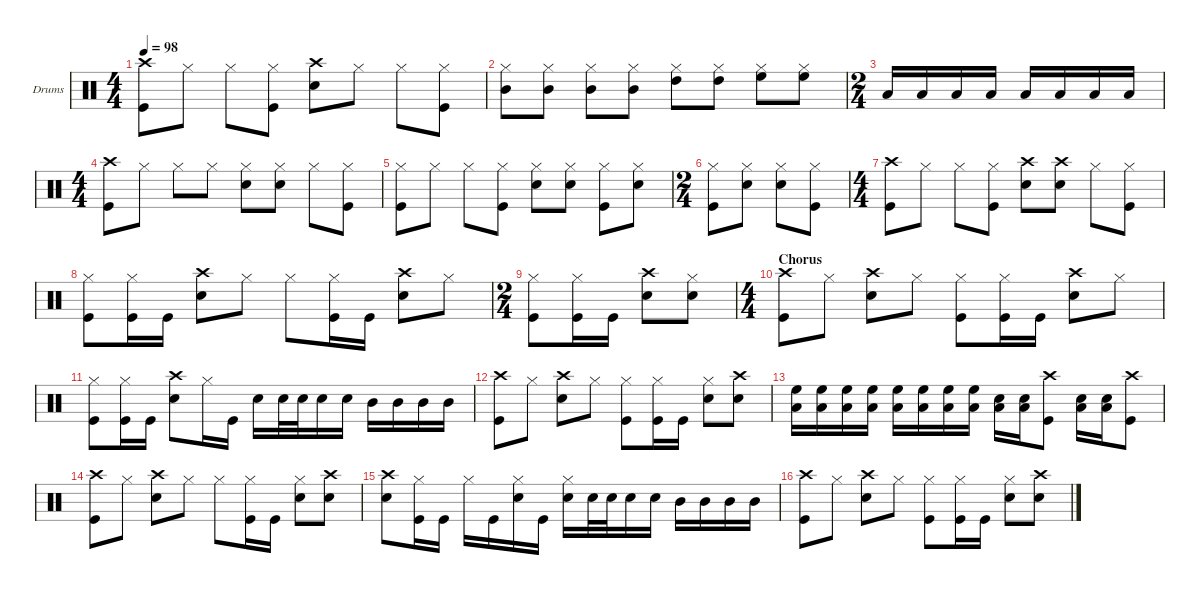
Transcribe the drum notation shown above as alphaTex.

\hideDynamics
\bracketExtendMode groupsimilarinstruments
\firstSystemTrackNameOrientation horizontal
\otherSystemsTrackNameOrientation horizontal
\track ("Drumkit" "Drums") {multiBarRest instrument percussion}
\staff {score}
\articulation defaults
\ts (4 4)
\tempo 98
\clef neutral
\ks c
("Crash high (hit)" "Kick (hit)").8{dy f} "Hi-Hat (closed)".8 "Hi-Hat (closed)".8 ("Kick (hit)" "Hi-Hat (closed)").8 ("Crash high (hit)" "Snare (hit) 2").8 "Hi-Hat (closed)".8 "Hi-Hat (closed)".8 ("Kick (hit)" "Hi-Hat (closed)").8 |
("Mid Tom (hit)" "Hi-Hat (closed)").8 ("Mid Tom (hit)" "Hi-Hat (closed)").8 ("Mid Tom (hit)" "Hi-Hat (closed)").8 ("Mid Tom (hit)" "Hi-Hat (closed)").8 ("High Tom (hit)" "Hi-Hat (closed)").8 ("High Tom (hit)" "Hi-Hat (closed)").8 ("High Floor Tom (hit)" "Hi-Hat (closed)").8 ("High Floor Tom (hit)" "Hi-Hat (closed)").8 |
\ts (2 4)
"Low Tom (hit)".16 "Low Tom (hit)".16 "Low Tom (hit)".16 "Low Tom (hit)".16 "Low Tom (hit)".16 "Low Tom (hit)".16 "Low Tom (hit)".16 "Low Tom (hit)".16 |
\ts (4 4)
("Crash high (hit)" "Kick (hit)").8 "Hi-Hat (closed)".8 "Hi-Hat (closed)".8 "Hi-Hat (closed)".8 ("Hi-Hat (closed)" "Snare (hit) 2").8 ("Snare (hit) 2" "Hi-Hat (closed)").8 "Hi-Hat (closed)".8 ("Kick (hit)" "Hi-Hat (closed)").8 |
("Hi-Hat (closed)" "Kick (hit)").8 "Hi-Hat (closed)".8 "Hi-Hat (closed)".8 ("Hi-Hat (closed)" "Kick (hit)").8 ("Snare (hit) 2" "Hi-Hat (closed)").8 ("Snare (hit) 2" "Hi-Hat (closed)").8 ("Hi-Hat (closed)" "Kick (hit)").8 ("Snare (hit) 2" "Hi-Hat (closed)").8 |
\ts (2 4)
("Kick (hit)" "Hi-Hat (closed)").8 ("Snare (hit) 2" "Hi-Hat (closed)").8 ("Snare (hit) 2" "Hi-Hat (closed)").8 ("Kick (hit)" "Hi-Hat (closed)").8 |
\ts (4 4)
("Crash high (hit)" "Kick (hit)").8 "Hi-Hat (closed)".8 "Hi-Hat (closed)".8 ("Kick (hit)" "Hi-Hat (closed)").8 ("Crash high (hit)" "Snare (hit) 2").8 ("Crash high (hit)" "Snare (hit) 2").8 "Hi-Hat (closed)".8 ("Kick (hit)" "Hi-Hat (closed)").8 |
("Hi-Hat (closed)" "Kick (hit)").8 ("Hi-Hat (closed)" "Kick (hit)").16 "Kick (hit)".16 ("Crash high (hit)" "Snare (hit) 2").8 "Hi-Hat (closed)".8 "Hi-Hat (closed)".8 ("Hi-Hat (closed)" "Kick (hit)").16 "Kick (hit)".16 ("Crash high (hit)" "Snare (hit) 2").8 "Hi-Hat (closed)".8 |
\ts (2 4)
("Hi-Hat (closed)" "Kick (hit)").8 ("Hi-Hat (closed)" "Kick (hit)").16 "Kick (hit)".16 ("Crash high (hit)" "Snare (hit) 2").8 ("Hi-Hat (closed)" "Snare (hit) 2").8 |
\ts (4 4)
\section ("" "Chorus")
("Crash high (hit)" "Kick (hit)").8 "Hi-Hat (closed)".8 ("Crash high (hit)" "Snare (hit) 2").8 "Hi-Hat (closed)".8 ("Kick (hit)" "Hi-Hat (closed)").8 ("Kick (hit)" "Hi-Hat (closed)").16 "Kick (hit)".16 ("Crash high (hit)" "Snare (hit) 2").8 "Hi-Hat (closed)".8 |
("Hi-Hat (closed)" "Kick (hit)").8 ("Hi-Hat (closed)" "Kick (hit)").16 "Kick (hit)".16 ("Crash high (hit)" "Snare (hit) 2").8 "Hi-Hat (closed)".16 "Kick (hit)".16 "Snare (hit) 2".16 "Snare (hit) 2".32 "Snare (hit) 2".32 "Snare (hit) 2".16 "Snare (hit) 2".16 "Mid Tom (hit)".16 "Mid Tom (hit)".16 "Mid Tom (hit)".16 "Mid Tom (hit)".16 |
("Crash high (hit)" "Kick (hit)").8 "Hi-Hat (closed)".8 ("Crash high (hit)" "Snare (hit) 2").8 "Hi-Hat (closed)".8 ("Hi-Hat (closed)" "Kick (hit)").8 ("Hi-Hat (closed)" "Kick (hit)").16 "Kick (hit)".16 ("Snare (hit) 2" "Hi-Hat (closed)").8 ("Crash high (hit)" "Snare (hit) 2").8 |
("High Floor Tom (hit)" "Low Tom (hit)").16 ("High Floor Tom (hit)" "Low Tom (hit)").16 ("High Floor Tom (hit)" "Low Tom (hit)").16 ("High Floor Tom (hit)" "Low Tom (hit)").16 ("High Floor Tom (hit)" "Low Tom (hit)").16 ("High Floor Tom (hit)" "Low Tom (hit)").16 ("High Floor Tom (hit)" "Low Tom (hit)").16 ("High Floor Tom (hit)" "Low Tom (hit)").16 ("Snare (hit) 2" "Low Tom (hit)").16 ("Snare (hit) 2" "Low Tom (hit)").16 ("Kick (hit)" "Crash high (hit)").8 ("Snare (hit) 2" "Low Tom (hit)").16 ("Snare (hit) 2" "Low Tom (hit)").16 ("Crash high (hit)" "Kick (hit)").8 |
("Kick (hit)" "Crash high (hit)").8 "Hi-Hat (closed)".8 ("Crash high (hit)" "Snare (hit) 2").8 "Hi-Hat (closed)".8 "Hi-Hat (closed)".8 ("Hi-Hat (closed)" "Kick (hit)").16 "Kick (hit)".16 ("Snare (hit) 2" "Hi-Hat (closed)").8 ("Crash high (hit)" "Snare (hit) 2").8 |
("Snare (hit) 2" "Crash high (hit)").8 ("Hi-Hat (closed)" "Kick (hit)").16 "Kick (hit)".16 "Hi-Hat (closed)".16 "Kick (hit)".16 ("Snare (hit) 2" "Hi-Hat (closed)").16 "Kick (hit)".16 ("Snare (hit) 2" "Hi-Hat (closed)").16 "Snare (hit) 2".32 "Snare (hit) 2".32 "Snare (hit) 2".16 "Snare (hit) 2".16 "Mid Tom (hit)".16 "Mid Tom (hit)".16 "Mid Tom (hit)".16 "Mid Tom (hit)".16 |
("Crash high (hit)" "Kick (hit)").8 "Hi-Hat (closed)".8 ("Crash high (hit)" "Snare (hit) 2").8 "Hi-Hat (closed)".8 ("Kick (hit)" "Hi-Hat (closed)").8 ("Kick (hit)" "Hi-Hat (closed)").16 "Kick (hit)".16 ("Snare (hit) 2" "Hi-Hat (closed)").8 ("Crash high (hit)" "Snare (hit) 2").8
